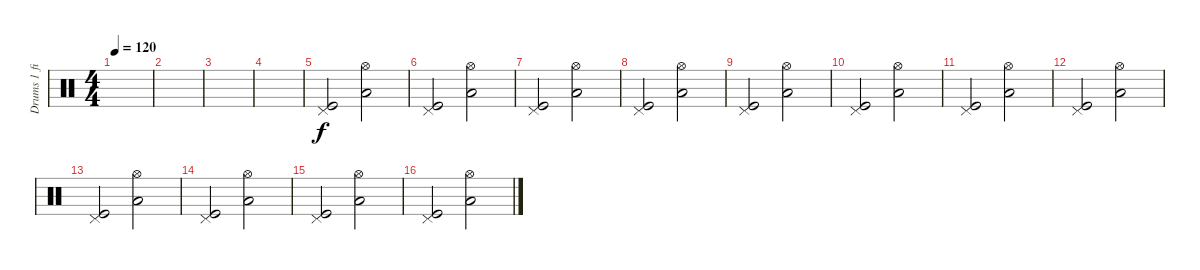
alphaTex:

\track ("Drums 1 filler" "Drums 1 fi") {instrument percussion}
\staff {score}
\articulation defaults
\ts (4 4)
\tempo 120
\clef neutral
\ks c
|
|
|
|
("Kick (hit)" "Pedal Hi-Hat (hit)").2 ("Low Tom (hit)" "Hi-Hat (open)").2 |
("Kick (hit)" "Pedal Hi-Hat (hit)").2 ("Low Tom (hit)" "Hi-Hat (open)").2 |
("Kick (hit)" "Pedal Hi-Hat (hit)").2 ("Low Tom (hit)" "Hi-Hat (open)").2 |
("Kick (hit)" "Pedal Hi-Hat (hit)").2 ("Low Tom (hit)" "Hi-Hat (open)").2 |
("Kick (hit)" "Pedal Hi-Hat (hit)").2 ("Low Tom (hit)" "Hi-Hat (open)").2 |
("Kick (hit)" "Pedal Hi-Hat (hit)").2 ("Low Tom (hit)" "Hi-Hat (open)").2 |
("Kick (hit)" "Pedal Hi-Hat (hit)").2 ("Low Tom (hit)" "Hi-Hat (open)").2 |
("Kick (hit)" "Pedal Hi-Hat (hit)").2 ("Low Tom (hit)" "Hi-Hat (open)").2 |
("Kick (hit)" "Pedal Hi-Hat (hit)").2 ("Low Tom (hit)" "Hi-Hat (open)").2 |
("Kick (hit)" "Pedal Hi-Hat (hit)").2 ("Low Tom (hit)" "Hi-Hat (open)").2 |
("Kick (hit)" "Pedal Hi-Hat (hit)").2 ("Low Tom (hit)" "Hi-Hat (open)").2 |
("Kick (hit)" "Pedal Hi-Hat (hit)").2 ("Low Tom (hit)" "Hi-Hat (open)").2
